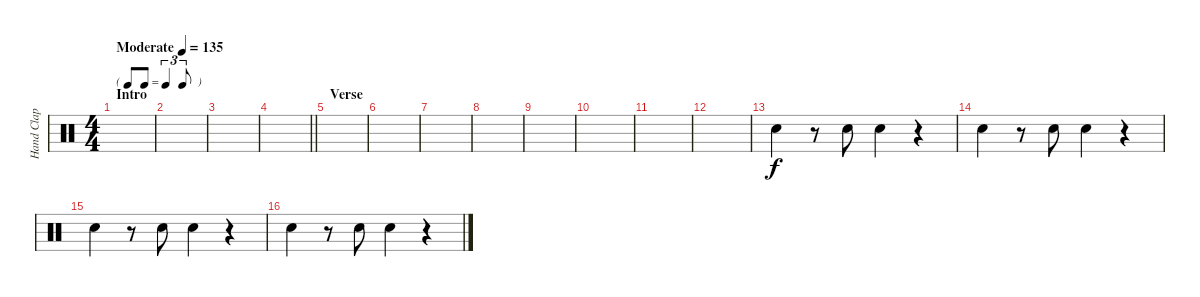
\track ("Hand Clap" "Hand Clap") {instrument percussion}
\staff {score}
\articulation defaults
\ts (4 4)
\tf triplet8th
\section ("" "Intro")
\tempo (135 "Moderate")
\clef neutral
\ks c
|
|
|
\barLineRight lightlight
|
\section ("" "Verse")
|
|
|
|
|
|
|
|
"Hand Clap (hit)".4 r.8 "Hand Clap (hit)".8 "Hand Clap (hit)".4 r.4 |
"Hand Clap (hit)".4 r.8 "Hand Clap (hit)".8 "Hand Clap (hit)".4 r.4 |
"Hand Clap (hit)".4 r.8 "Hand Clap (hit)".8 "Hand Clap (hit)".4 r.4 |
"Hand Clap (hit)".4 r.8 "Hand Clap (hit)".8 "Hand Clap (hit)".4 r.4
